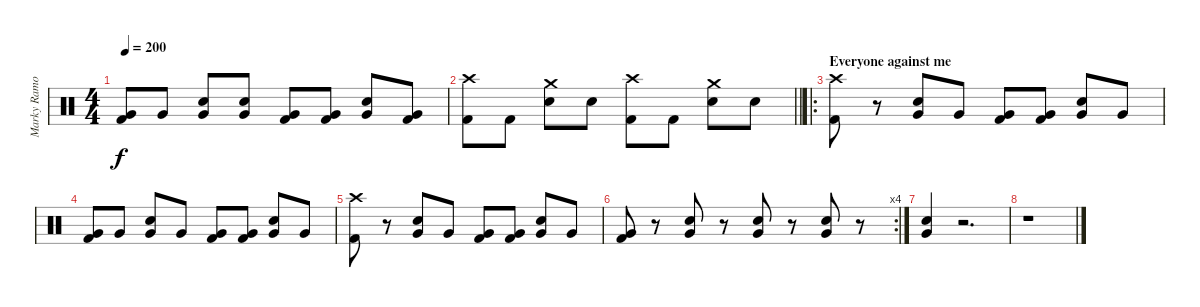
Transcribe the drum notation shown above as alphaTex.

\track ("Marky Ramone" "Marky Ramo") {instrument percussion}
\staff {score}
\articulation defaults
\ts (4 4)
\tempo 200
\clef neutral
\ks c
("Very Low Tom (hit)" "Kick (hit) 2").8{dy f} "Very Low Tom (hit)".8 ("Very Low Tom (hit)" "Electric Snare (hit)").8 ("Very Low Tom (hit)" "Electric Snare (hit)").8 ("Very Low Tom (hit)" "Kick (hit) 2").8 ("Very Low Tom (hit)" "Kick (hit) 2").8 ("Very Low Tom (hit)" "Electric Snare (hit)").8 ("Very Low Tom (hit)" "Kick (hit) 2").8 |
\barLineRight lightlight
("Crash high (hit)" "Kick (hit) 2").8 "Kick (hit) 2".8 ("Crash medium (hit)" "Electric Snare (hit)").8 "Electric Snare (hit)".8 ("Crash high (hit)" "Kick (hit) 2").8 "Kick (hit) 2".8 ("Crash medium (hit)" "Electric Snare (hit)").8 "Electric Snare (hit)".8 |
\ro
\section ("" "Everyone against me")
("Crash high (hit)" "Kick (hit) 2").8 r.8 ("Very Low Tom (hit)" "Electric Snare (hit)").8 "Very Low Tom (hit)".8 ("Very Low Tom (hit)" "Kick (hit) 2").8 ("Very Low Tom (hit)" "Kick (hit) 2").8 ("Very Low Tom (hit)" "Electric Snare (hit)").8 "Very Low Tom (hit)".8 |
("Very Low Tom (hit)" "Kick (hit) 2").8 "Very Low Tom (hit)".8 ("Very Low Tom (hit)" "Electric Snare (hit)").8 "Very Low Tom (hit)".8 ("Very Low Tom (hit)" "Kick (hit) 2").8 ("Very Low Tom (hit)" "Kick (hit) 2").8 ("Very Low Tom (hit)" "Electric Snare (hit)").8 "Very Low Tom (hit)".8 |
("Crash high (hit)" "Kick (hit) 2").8 r.8 ("Very Low Tom (hit)" "Electric Snare (hit)").8 "Very Low Tom (hit)".8 ("Very Low Tom (hit)" "Kick (hit) 2").8 ("Very Low Tom (hit)" "Kick (hit) 2").8 ("Very Low Tom (hit)" "Electric Snare (hit)").8 "Very Low Tom (hit)".8 |
\rc 4
("Very Low Tom (hit)" "Kick (hit) 2").8 r.8 ("Very Low Tom (hit)" "Electric Snare (hit)").8 r.8 ("Very Low Tom (hit)" "Electric Snare (hit)").8 r.8 ("Very Low Tom (hit)" "Electric Snare (hit)").8 r.8 |
("Very Low Tom (hit)" "Electric Snare (hit)").4 r.2{d} |
r.1
